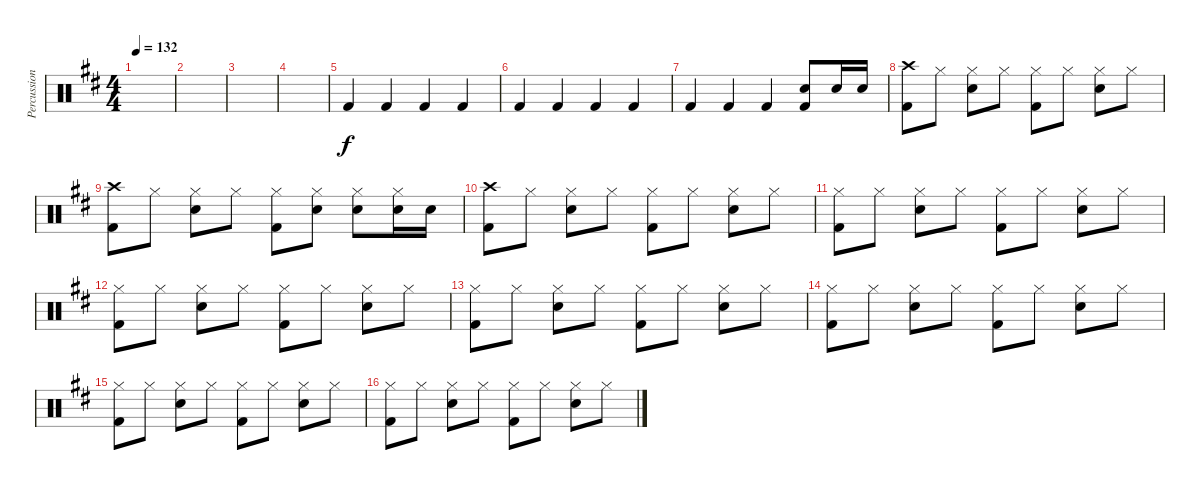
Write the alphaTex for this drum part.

\track ("Percussion" "Percussion") {instrument percussion}
\staff {score}
\articulation defaults
\ts (4 4)
\tempo 132
\clef neutral
\ks d
|
|
|
|
"Kick (hit) 2".4 "Kick (hit) 2".4 "Kick (hit) 2".4 "Kick (hit) 2".4 |
"Kick (hit) 2".4 "Kick (hit) 2".4 "Kick (hit) 2".4 "Kick (hit) 2".4 |
"Kick (hit) 2".4 "Kick (hit) 2".4 "Kick (hit) 2".4 ("Electric Snare (hit)" "Kick (hit) 2").8 "Electric Snare (hit)".16 "Electric Snare (hit)".16 |
("Crash high (hit)" "Kick (hit) 2").8 "Hi-Hat (closed)".8 ("Hi-Hat (closed)" "Electric Snare (hit)").8 "Hi-Hat (closed)".8 ("Hi-Hat (closed)" "Kick (hit) 2").8 "Hi-Hat (closed)".8 ("Hi-Hat (closed)" "Electric Snare (hit)").8 "Hi-Hat (closed)".8 |
("Crash high (hit)" "Kick (hit) 2").8 "Hi-Hat (closed)".8 ("Hi-Hat (closed)" "Electric Snare (hit)").8 "Hi-Hat (closed)".8 ("Hi-Hat (closed)" "Kick (hit) 2").8 ("Hi-Hat (closed)" "Electric Snare (hit)").8 ("Hi-Hat (closed)" "Electric Snare (hit)").8 ("Hi-Hat (closed)" "Electric Snare (hit)").16 "Electric Snare (hit)".16 |
("Crash high (hit)" "Kick (hit) 2").8 "Hi-Hat (closed)".8 ("Hi-Hat (closed)" "Electric Snare (hit)").8 "Hi-Hat (closed)".8 ("Hi-Hat (closed)" "Kick (hit) 2").8 "Hi-Hat (closed)".8 ("Hi-Hat (closed)" "Electric Snare (hit)").8 "Hi-Hat (closed)".8 |
("Hi-Hat (closed)" "Kick (hit) 2").8 "Hi-Hat (closed)".8 ("Hi-Hat (closed)" "Electric Snare (hit)").8 "Hi-Hat (closed)".8 ("Hi-Hat (closed)" "Kick (hit) 2").8 "Hi-Hat (closed)".8 ("Hi-Hat (closed)" "Electric Snare (hit)").8 "Hi-Hat (closed)".8 |
("Hi-Hat (closed)" "Kick (hit) 2").8 "Hi-Hat (closed)".8 ("Hi-Hat (closed)" "Electric Snare (hit)").8 "Hi-Hat (closed)".8 ("Hi-Hat (closed)" "Kick (hit) 2").8 "Hi-Hat (closed)".8 ("Hi-Hat (closed)" "Electric Snare (hit)").8 "Hi-Hat (closed)".8 |
("Hi-Hat (closed)" "Kick (hit) 2").8 "Hi-Hat (closed)".8 ("Hi-Hat (closed)" "Electric Snare (hit)").8 "Hi-Hat (closed)".8 ("Hi-Hat (closed)" "Kick (hit) 2").8 "Hi-Hat (closed)".8 ("Hi-Hat (closed)" "Electric Snare (hit)").8 "Hi-Hat (closed)".8 |
("Hi-Hat (closed)" "Kick (hit) 2").8 "Hi-Hat (closed)".8 ("Hi-Hat (closed)" "Electric Snare (hit)").8 "Hi-Hat (closed)".8 ("Hi-Hat (closed)" "Kick (hit) 2").8 "Hi-Hat (closed)".8 ("Hi-Hat (closed)" "Electric Snare (hit)").8 "Hi-Hat (closed)".8 |
("Hi-Hat (closed)" "Kick (hit) 2").8 "Hi-Hat (closed)".8 ("Hi-Hat (closed)" "Electric Snare (hit)").8 "Hi-Hat (closed)".8 ("Hi-Hat (closed)" "Kick (hit) 2").8 "Hi-Hat (closed)".8 ("Hi-Hat (closed)" "Electric Snare (hit)").8 "Hi-Hat (closed)".8 |
("Hi-Hat (closed)" "Kick (hit) 2").8 "Hi-Hat (closed)".8 ("Hi-Hat (closed)" "Electric Snare (hit)").8 "Hi-Hat (closed)".8 ("Hi-Hat (closed)" "Kick (hit) 2").8 "Hi-Hat (closed)".8 ("Hi-Hat (closed)" "Electric Snare (hit)").8 "Hi-Hat (closed)".8
